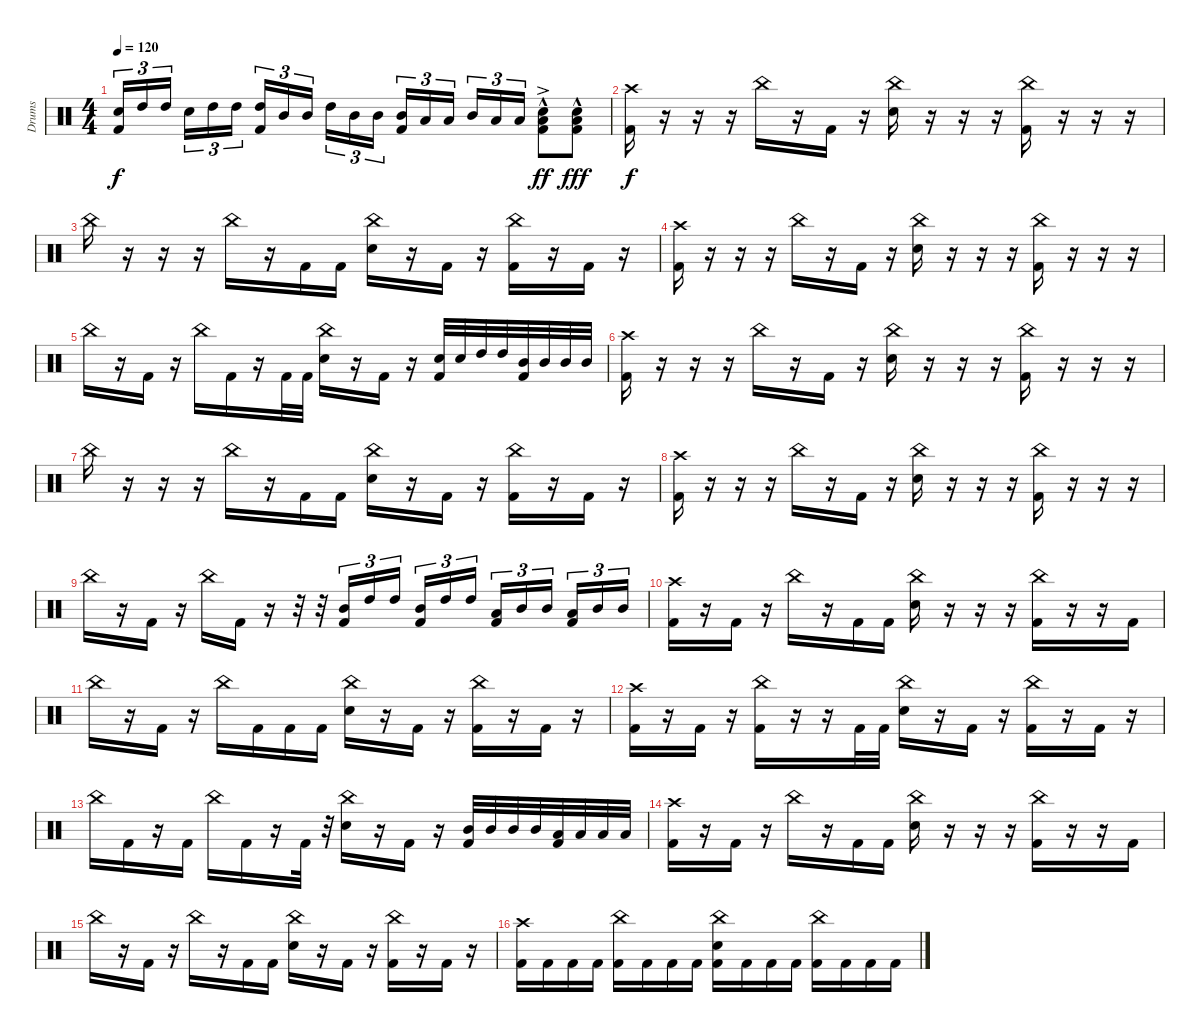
\track ("Drums" "Drums") {instrument percussion}
\staff {score}
\articulation defaults
\ts (4 4)
\tempo 120
\clef neutral
\ks c
("Snare (hit) 2" "Kick (hit) 2").16{tu (3 2) dy f} "High Tom (hit)".16{tu (3 2)} "High Tom (hit)".16{tu (3 2) beam splitsecondary} "Snare (hit) 2".16{tu (3 2)} "High Tom (hit)".16{tu (3 2)} "High Tom (hit)".16{tu (3 2)} ("High Tom (hit)" "Kick (hit) 2").16{tu (3 2)} "Mid Tom (hit)".16{tu (3 2)} "Mid Tom (hit)".16{tu (3 2) beam splitsecondary} "High Tom (hit)".16{tu (3 2)} "Mid Tom (hit)".16{tu (3 2)} "Mid Tom (hit)".16{tu (3 2)} ("Mid Tom (hit)" "Kick (hit) 2").16{tu (3 2)} "Low Tom (hit)".16{tu (3 2)} "Low Tom (hit)".16{tu (3 2) beam splitsecondary} "Mid Tom (hit)".16{tu (3 2)} "Low Tom (hit)".16{tu (3 2)} "Low Tom (hit)".16{tu (3 2)} ("Low Tom (hit)"{hac} "Snare (hit) 2"{ac} "Kick (hit) 2").8{dy ff} ("Low Tom (hit)"{hac} "Snare (hit) 2"{hac} "Kick (hit) 2").8{dy fff} |
("Crash high (hit)" "Kick (hit) 2").16{dy f} r.16 r.16 r.16 "China (hit)".16 r.16 "Kick (hit) 2".16 r.16 ("China (hit)" "Snare (hit) 2").16 r.16 r.16 r.16 ("China (hit)" "Kick (hit) 2").16 r.16 r.16 r.16 |
"China (hit)".16 r.16 r.16 r.16 "China (hit)".16 r.16 "Kick (hit) 2".16 "Kick (hit) 2".16 ("China (hit)" "Snare (hit) 2").16 r.16 "Kick (hit) 2".16 r.16 ("China (hit)" "Kick (hit) 2").16 r.16 "Kick (hit) 2".16 r.16 |
("Crash high (hit)" "Kick (hit) 2").16 r.16 r.16 r.16 "China (hit)".16 r.16 "Kick (hit) 2".16 r.16 ("China (hit)" "Snare (hit) 2").16 r.16 r.16 r.16 ("China (hit)" "Kick (hit) 2").16 r.16 r.16 r.16 |
"China (hit)".16 r.16 "Kick (hit) 2".16 r.16 "China (hit)".16 "Kick (hit) 2".16 r.16 "Kick (hit) 2".32 "Kick (hit) 2".32 ("China (hit)" "Snare (hit) 2").16 r.16 "Kick (hit) 2".16 r.16 ("Snare (hit) 2" "Kick (hit) 2").32 "Snare (hit) 2".32 "High Tom (hit)".32 "High Tom (hit)".32 ("Mid Tom (hit)" "Kick (hit) 2").32 "Mid Tom (hit)".32 "Mid Tom (hit)".32 "Mid Tom (hit)".32 |
("Crash high (hit)" "Kick (hit) 2").16 r.16 r.16 r.16 "China (hit)".16 r.16 "Kick (hit) 2".16 r.16 ("China (hit)" "Snare (hit) 2").16 r.16 r.16 r.16 ("China (hit)" "Kick (hit) 2").16 r.16 r.16 r.16 |
"China (hit)".16 r.16 r.16 r.16 "China (hit)".16 r.16 "Kick (hit) 2".16 "Kick (hit) 2".16 ("China (hit)" "Snare (hit) 2").16 r.16 "Kick (hit) 2".16 r.16 ("China (hit)" "Kick (hit) 2").16 r.16 "Kick (hit) 2".16 r.16 |
("Crash high (hit)" "Kick (hit) 2").16 r.16 r.16 r.16 "China (hit)".16 r.16 "Kick (hit) 2".16 r.16 ("China (hit)" "Snare (hit) 2").16 r.16 r.16 r.16 ("China (hit)" "Kick (hit) 2").16 r.16 r.16 r.16 |
"China (hit)".16 r.16 "Kick (hit) 2".16 r.16 "China (hit)".16 "Kick (hit) 2".16 r.16 r.32 r.32 ("Mid Tom (hit)" "Kick (hit) 2").16{tu (3 2)} "High Tom (hit)".16{tu (3 2)} "High Tom (hit)".16{tu (3 2) beam splitsecondary} ("Mid Tom (hit)" "Kick (hit) 2").16{tu (3 2)} "High Tom (hit)".16{tu (3 2)} "High Tom (hit)".16{tu (3 2)} ("Low Tom (hit)" "Kick (hit) 2").16{tu (3 2)} "Mid Tom (hit)".16{tu (3 2)} "Mid Tom (hit)".16{tu (3 2) beam splitsecondary} ("Low Tom (hit)" "Kick (hit) 2").16{tu (3 2)} "Mid Tom (hit)".16{tu (3 2)} "Mid Tom (hit)".16{tu (3 2)} |
("Crash high (hit)" "Kick (hit) 2").16 r.16 "Kick (hit) 2".16 r.16 "China (hit)".16 r.16 "Kick (hit) 2".16 "Kick (hit) 2".16 ("China (hit)" "Snare (hit) 2").16 r.16 r.16 r.16 ("China (hit)" "Kick (hit) 2").16 r.16 r.16 "Kick (hit) 2".16 |
"China (hit)".16 r.16 "Kick (hit) 2".16 r.16 "China (hit)".16 "Kick (hit) 2".16 "Kick (hit) 2".16 "Kick (hit) 2".16 ("China (hit)" "Snare (hit) 2").16 r.16 "Kick (hit) 2".16 r.16 ("China (hit)" "Kick (hit) 2").16 r.16 "Kick (hit) 2".16 r.16 |
("Crash high (hit)" "Kick (hit) 2").16 r.16 "Kick (hit) 2".16 r.16 ("China (hit)" "Kick (hit) 2").16 r.16 r.16 "Kick (hit) 2".32 "Kick (hit) 2".32 ("China (hit)" "Snare (hit) 2").16 r.16 "Kick (hit) 2".16 r.16 ("China (hit)" "Kick (hit) 2").16 r.16 "Kick (hit) 2".16 r.16 |
"China (hit)".16 "Kick (hit) 2".16 r.16 "Kick (hit) 2".16 "China (hit)".16 "Kick (hit) 2".16 r.16 "Kick (hit) 2".32 r.32 ("China (hit)" "Snare (hit) 2").16 r.16 "Kick (hit) 2".16 r.16 ("Mid Tom (hit)" "Kick (hit) 2").32 "Mid Tom (hit)".32 "Mid Tom (hit)".32 "Mid Tom (hit)".32 ("Low Tom (hit)" "Kick (hit) 2").32 "Low Tom (hit)".32 "Low Tom (hit)".32 "Low Tom (hit)".32 |
("Crash high (hit)" "Kick (hit) 2").16 r.16 "Kick (hit) 2".16 r.16 "China (hit)".16 r.16 "Kick (hit) 2".16 "Kick (hit) 2".16 ("China (hit)" "Snare (hit) 2").16 r.16 r.16 r.16 ("China (hit)" "Kick (hit) 2").16 r.16 r.16 "Kick (hit) 2".16 |
"China (hit)".16 r.16 "Kick (hit) 2".16 r.16 "China (hit)".16 r.16 "Kick (hit) 2".16 "Kick (hit) 2".16 ("China (hit)" "Snare (hit) 2").16 r.16 "Kick (hit) 2".16 r.16 ("China (hit)" "Kick (hit) 2").16 r.16 "Kick (hit) 2".16 r.16 |
("Crash high (hit)" "Kick (hit) 2").16 "Kick (hit) 2".16 "Kick (hit) 2".16 "Kick (hit) 2".16 ("China (hit)" "Kick (hit) 2").16 "Kick (hit) 2".16 "Kick (hit) 2".16 "Kick (hit) 2".16 ("China (hit)" "Snare (hit) 2" "Kick (hit) 2").16 "Kick (hit) 2".16 "Kick (hit) 2".16 "Kick (hit) 2".16 ("China (hit)" "Kick (hit) 2").16 "Kick (hit) 2".16 "Kick (hit) 2".16 "Kick (hit) 2".16
